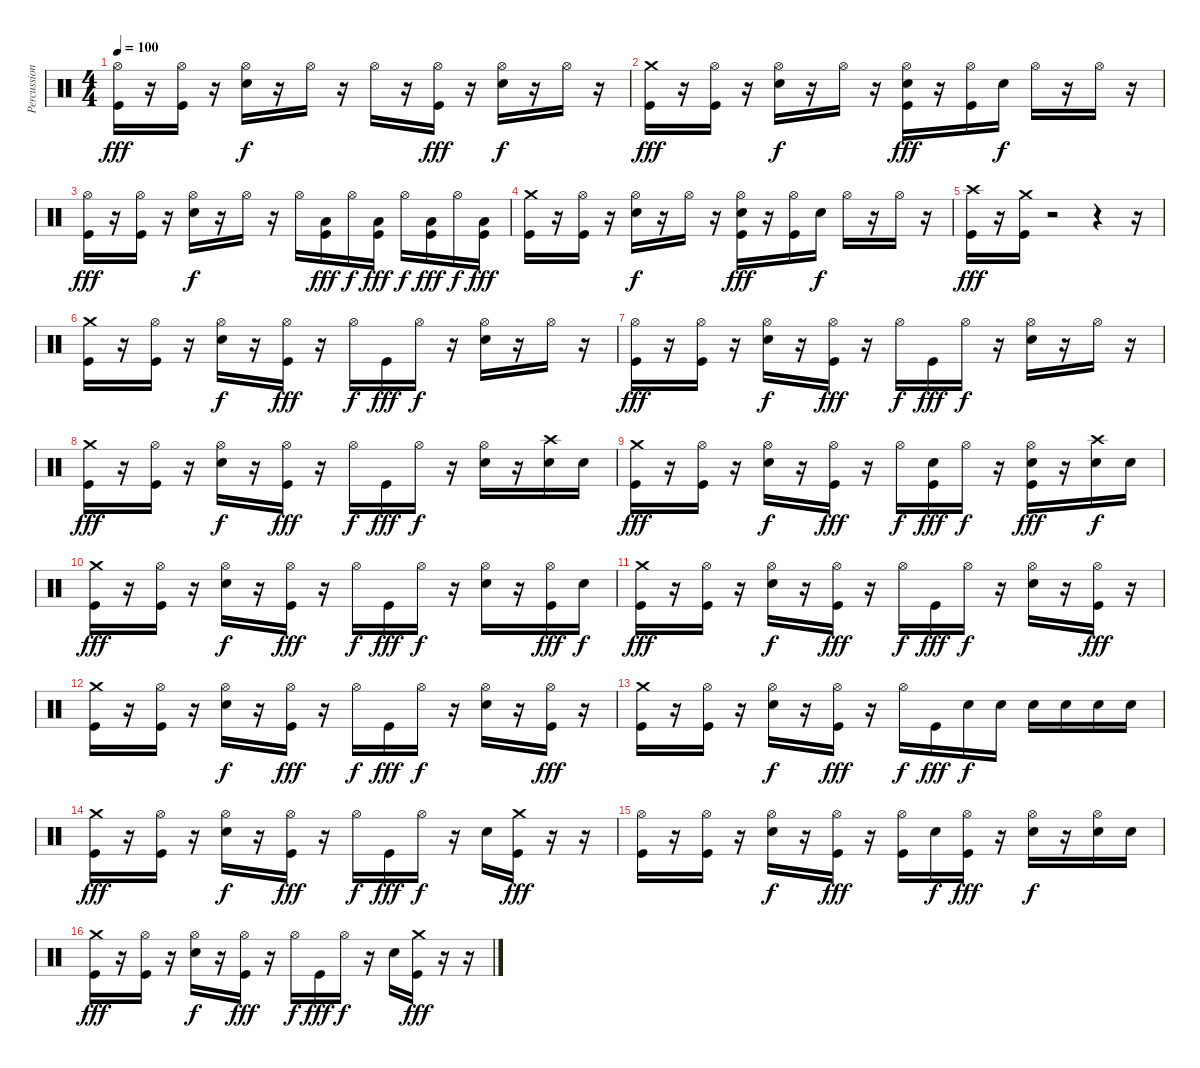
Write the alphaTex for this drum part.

\track ("Percussion" "Percussion") {instrument percussion}
\staff {score}
\articulation defaults
\ts (4 4)
\tempo 100
\clef neutral
\ks c
("Hi-Hat (open)" "Kick (hit)").16{dy fff} r.16 ("Hi-Hat (open)" "Kick (hit)").16 r.16 ("Hi-Hat (open)" "Electric Snare (hit)").16{dy f} r.16 "Hi-Hat (open)".16 r.16 "Hi-Hat (open)".16 r.16 ("Hi-Hat (open)" "Kick (hit)").16{dy fff} r.16 ("Hi-Hat (open)" "Electric Snare (hit)").16{dy f} r.16 "Hi-Hat (open)".16 r.16 |
("Crash medium (hit)" "Kick (hit)").16{dy fff} r.16 ("Hi-Hat (open)" "Kick (hit)").16 r.16 ("Hi-Hat (open)" "Electric Snare (hit)").16{dy f} r.16 "Hi-Hat (open)".16 r.16 ("Hi-Hat (open)" "Electric Snare (hit)" "Kick (hit)").16{dy fff} r.16 ("Hi-Hat (open)" "Kick (hit)").16 "Electric Snare (hit)".16{dy f} "Hi-Hat (open)".16 r.16 "Hi-Hat (open)".16 r.16 |
("Hi-Hat (open)" "Kick (hit)").16{dy fff} r.16 ("Hi-Hat (open)" "Kick (hit)").16 r.16 ("Hi-Hat (open)" "Electric Snare (hit)").16{dy f} r.16 "Hi-Hat (open)".16 r.16 "Hi-Hat (open)".16 ("Low Floor Tom (hit)" "Kick (hit)").16{dy fff} "Hi-Hat (open)".16{dy f} ("Low Floor Tom (hit)" "Kick (hit)").16{dy fff} "Hi-Hat (open)".16{dy f} ("Low Floor Tom (hit)" "Kick (hit)").16{dy fff} "Hi-Hat (open)".16{dy f} ("Low Floor Tom (hit)" "Kick (hit)").16{dy fff} |
("Crash medium (hit)" "Kick (hit)").16 r.16 ("Hi-Hat (open)" "Kick (hit)").16 r.16 ("Hi-Hat (open)" "Electric Snare (hit)").16{dy f} r.16 "Hi-Hat (open)".16 r.16 ("Hi-Hat (open)" "Electric Snare (hit)" "Kick (hit)").16{dy fff} r.16 ("Hi-Hat (open)" "Kick (hit)").16 "Electric Snare (hit)".16{dy f} "Hi-Hat (open)".16 r.16 "Hi-Hat (open)".16 r.16 |
("Crash high (hit)" "Kick (hit)").16{dy fff} r.16 ("Crash medium (hit)" "Kick (hit)").16 r.2 r.4 r.16 |
("Crash medium (hit)" "Kick (hit)").16 r.16 ("Hi-Hat (open)" "Kick (hit)").16 r.16 ("Hi-Hat (open)" "Electric Snare (hit)").16{dy f} r.16 ("Hi-Hat (open)" "Kick (hit)").16{dy fff} r.16 "Hi-Hat (open)".16{dy f} "Kick (hit)".16{dy fff} "Hi-Hat (open)".16{dy f} r.16 ("Hi-Hat (open)" "Electric Snare (hit)").16 r.16 "Hi-Hat (open)".16 r.16 |
("Hi-Hat (open)" "Kick (hit)").16{dy fff} r.16 ("Hi-Hat (open)" "Kick (hit)").16 r.16 ("Hi-Hat (open)" "Electric Snare (hit)").16{dy f} r.16 ("Hi-Hat (open)" "Kick (hit)").16{dy fff} r.16 "Hi-Hat (open)".16{dy f} "Kick (hit)".16{dy fff} "Hi-Hat (open)".16{dy f} r.16 ("Hi-Hat (open)" "Electric Snare (hit)").16 r.16 "Hi-Hat (open)".16 r.16 |
("Crash medium (hit)" "Kick (hit)").16{dy fff} r.16 ("Hi-Hat (open)" "Kick (hit)").16 r.16 ("Hi-Hat (open)" "Electric Snare (hit)").16{dy f} r.16 ("Hi-Hat (open)" "Kick (hit)").16{dy fff} r.16 "Hi-Hat (open)".16{dy f} "Kick (hit)".16{dy fff} "Hi-Hat (open)".16{dy f} r.16 ("Hi-Hat (open)" "Electric Snare (hit)").16 r.16 ("Crash high (hit)" "Electric Snare (hit)").16 "Electric Snare (hit)".16 |
("Crash medium (hit)" "Kick (hit)").16{dy fff} r.16 ("Hi-Hat (open)" "Kick (hit)").16 r.16 ("Hi-Hat (open)" "Electric Snare (hit)").16{dy f} r.16 ("Hi-Hat (open)" "Kick (hit)").16{dy fff} r.16 "Hi-Hat (open)".16{dy f} ("Electric Snare (hit)" "Kick (hit)").16{dy fff} "Hi-Hat (open)".16{dy f} r.16 ("Hi-Hat (open)" "Electric Snare (hit)" "Kick (hit)").16{dy fff} r.16 ("Crash high (hit)" "Electric Snare (hit)").16{dy f} "Electric Snare (hit)".16 |
("Crash medium (hit)" "Kick (hit)").16{dy fff} r.16 ("Hi-Hat (open)" "Kick (hit)").16 r.16 ("Hi-Hat (open)" "Electric Snare (hit)").16{dy f} r.16 ("Hi-Hat (open)" "Kick (hit)").16{dy fff} r.16 "Hi-Hat (open)".16{dy f} "Kick (hit)".16{dy fff} "Hi-Hat (open)".16{dy f} r.16 ("Hi-Hat (open)" "Electric Snare (hit)").16 r.16 ("Hi-Hat (open)" "Kick (hit)").16{dy fff} "Electric Snare (hit)".16{dy f} |
("Crash medium (hit)" "Kick (hit)").16{dy fff} r.16 ("Hi-Hat (open)" "Kick (hit)").16 r.16 ("Hi-Hat (open)" "Electric Snare (hit)").16{dy f} r.16 ("Hi-Hat (open)" "Kick (hit)").16{dy fff} r.16 "Hi-Hat (open)".16{dy f} "Kick (hit)".16{dy fff} "Hi-Hat (open)".16{dy f} r.16 ("Hi-Hat (open)" "Electric Snare (hit)").16 r.16 ("Hi-Hat (open)" "Kick (hit)").16{dy fff} r.16 |
("Crash medium (hit)" "Kick (hit)").16 r.16 ("Hi-Hat (open)" "Kick (hit)").16 r.16 ("Hi-Hat (open)" "Electric Snare (hit)").16{dy f} r.16 ("Hi-Hat (open)" "Kick (hit)").16{dy fff} r.16 "Hi-Hat (open)".16{dy f} "Kick (hit)".16{dy fff} "Hi-Hat (open)".16{dy f} r.16 ("Hi-Hat (open)" "Electric Snare (hit)").16 r.16 ("Hi-Hat (open)" "Kick (hit)").16{dy fff} r.16 |
("Crash medium (hit)" "Kick (hit)").16 r.16 ("Hi-Hat (open)" "Kick (hit)").16 r.16 ("Hi-Hat (open)" "Electric Snare (hit)").16{dy f} r.16 ("Hi-Hat (open)" "Kick (hit)").16{dy fff} r.16 "Hi-Hat (open)".16{dy f} "Kick (hit)".16{dy fff} "Electric Snare (hit)".16{dy f} "Electric Snare (hit)".16 "Electric Snare (hit)".16 "Electric Snare (hit)".16 "Electric Snare (hit)".16 "Electric Snare (hit)".16 |
("Crash medium (hit)" "Kick (hit)").16{dy fff} r.16 ("Hi-Hat (open)" "Kick (hit)").16 r.16 ("Hi-Hat (open)" "Electric Snare (hit)").16{dy f} r.16 ("Hi-Hat (open)" "Kick (hit)").16{dy fff} r.16 "Hi-Hat (open)".16{dy f} "Kick (hit)".16{dy fff} "Hi-Hat (open)".16{dy f} r.16 "Electric Snare (hit)".16 ("Crash medium (hit)" "Kick (hit)").16{dy fff} r.16 r.16 |
("Hi-Hat (open)" "Kick (hit)").16 r.16 ("Hi-Hat (open)" "Kick (hit)").16 r.16 ("Hi-Hat (open)" "Electric Snare (hit)").16{dy f} r.16 ("Hi-Hat (open)" "Kick (hit)").16{dy fff} r.16 ("Hi-Hat (open)" "Kick (hit)").16 "Electric Snare (hit)".16{dy f} ("Hi-Hat (open)" "Kick (hit)").16{dy fff} r.16 ("Hi-Hat (open)" "Electric Snare (hit)").16{dy f} r.16 ("Hi-Hat (open)" "Electric Snare (hit)").16 "Electric Snare (hit)".16 |
("Crash medium (hit)" "Kick (hit)").16{dy fff} r.16 ("Hi-Hat (open)" "Kick (hit)").16 r.16 ("Hi-Hat (open)" "Electric Snare (hit)").16{dy f} r.16 ("Hi-Hat (open)" "Kick (hit)").16{dy fff} r.16 "Hi-Hat (open)".16{dy f} "Kick (hit)".16{dy fff} "Hi-Hat (open)".16{dy f} r.16 "Electric Snare (hit)".16 ("Crash medium (hit)" "Kick (hit)").16{dy fff} r.16 r.16
